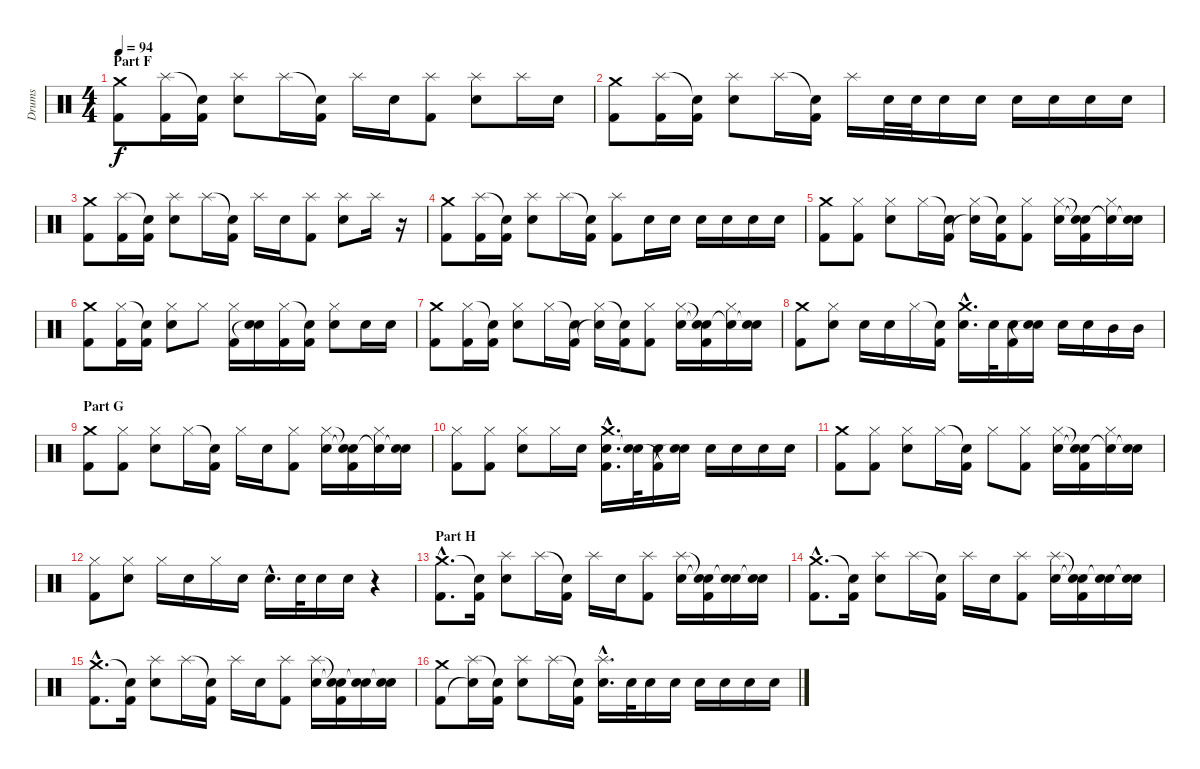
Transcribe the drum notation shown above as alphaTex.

\track ("Drums" "Drums") {instrument percussion}
\staff {score}
\articulation defaults
\ts (4 4)
\section ("" "Part F")
\tempo 94
\clef neutral
\ks c
("Crash medium (hit)" "Kick (hit) 2").8{dy f} ("Splash (hit)" "Kick (hit) 2").16 ("Snare (hit)"{t} "Kick (hit) 2").16 ("Splash (hit)" "Electric Snare (hit)").8 "Splash (hit)".16 ("Snare (hit)"{t} "Kick (hit) 2").16 "Splash (hit)".16 "Electric Snare (hit)".16 ("Splash (hit)" "Kick (hit) 2").8 ("Splash (hit)" "Electric Snare (hit)").8 "Splash (hit)".16 "Electric Snare (hit)".16 |
("Crash medium (hit)" "Kick (hit) 2").8 ("Splash (hit)" "Kick (hit) 2").16 ("Snare (hit)"{t} "Kick (hit) 2").16 ("Splash (hit)" "Electric Snare (hit)").8 "Splash (hit)".16 ("Snare (hit)"{t} "Kick (hit) 2").16 "Splash (hit)".16 "Electric Snare (hit)".32 "Electric Snare (hit)".32 "Electric Snare (hit)".16 "Electric Snare (hit)".16 "Electric Snare (hit)".16 "Electric Snare (hit)".16 "Electric Snare (hit)".16 "Electric Snare (hit)".16 |
("Crash medium (hit)" "Kick (hit) 2").8 ("Splash (hit)" "Kick (hit) 2").16 ("Snare (hit)"{t} "Kick (hit) 2").16 ("Splash (hit)" "Electric Snare (hit)").8 "Splash (hit)".16 ("Snare (hit)"{t} "Kick (hit) 2").16 "Splash (hit)".16 "Electric Snare (hit)".16 ("Splash (hit)" "Kick (hit) 2").8 ("Splash (hit)" "Electric Snare (hit)").8 "Splash (hit)".16 r.16 |
("Crash medium (hit)" "Kick (hit) 2").8 ("Splash (hit)" "Kick (hit) 2").16 ("Snare (hit)"{t} "Kick (hit) 2").16 ("Splash (hit)" "Electric Snare (hit)").8 "Splash (hit)".16 ("Snare (hit)"{t} "Kick (hit) 2").16 ("Splash (hit)" "Kick (hit) 2").8 "Electric Snare (hit)".16 "Electric Snare (hit)".16 "Electric Snare (hit)".16 "Electric Snare (hit)".16 "Electric Snare (hit)".16 "Electric Snare (hit)".16 |
("Crash medium (hit)" "Kick (hit) 2").8 ("Hi-Hat (closed)" "Kick (hit) 2").8 ("Hi-Hat (closed)" "Electric Snare (hit)").8 "Hi-Hat (closed)".16 ("Snare (hit)"{t} "Kick (hit) 2").16 ("Hi-Hat (closed)" "Snare (hit)"{t}).16 ("Snare (hit)"{t} "Kick (hit) 2").16 ("Hi-Hat (closed)" "Kick (hit) 2").8 ("Hi-Hat (closed)" "Electric Snare (hit)").16 ("Snare (hit)"{t} "Snare (hit)"{t} "Kick (hit) 2").16 ("Hi-Hat (closed)" "Snare (hit)"{t}).16 ("Electric Snare (hit)" "Snare (hit)"{t}).16 |
("Crash medium (hit)" "Kick (hit) 2").8 ("Hi-Hat (closed)" "Kick (hit) 2").16 ("Snare (hit)"{t} "Kick (hit) 2").16 ("Hi-Hat (closed)" "Electric Snare (hit)").8 "Hi-Hat (closed)".8 ("Hi-Hat (closed)" "Kick (hit) 2").16 ("Electric Snare (hit)" "Snare (hit)"{t}).16 ("Hi-Hat (closed)" "Kick (hit) 2").16 ("Snare (hit)"{t} "Kick (hit) 2").16 ("Hi-Hat (closed)" "Electric Snare (hit)").8 "Electric Snare (hit)".16 "Electric Snare (hit)".16 |
("Crash medium (hit)" "Kick (hit) 2").8 ("Hi-Hat (closed)" "Kick (hit) 2").16 ("Snare (hit)"{t} "Kick (hit) 2").16 ("Hi-Hat (closed)" "Electric Snare (hit)").8 "Hi-Hat (closed)".16 ("Snare (hit)"{t} "Kick (hit) 2").16 ("Hi-Hat (closed)" "Snare (hit)"{t}).16 ("Snare (hit)"{t} "Kick (hit) 2").16 ("Hi-Hat (closed)" "Kick (hit) 2").8 ("Hi-Hat (closed)" "Electric Snare (hit)").16 ("Snare (hit)"{t} "Snare (hit)"{t} "Kick (hit) 2").16 ("Hi-Hat (closed)" "Snare (hit)"{t}).16 ("Electric Snare (hit)" "Snare (hit)"{t}).16 |
("Crash medium (hit)" "Kick (hit) 2").8 ("Hi-Hat (closed)" "Electric Snare (hit)").8 "Electric Snare (hit)".16 "Electric Snare (hit)".16 "Hi-Hat (closed)".16 ("Snare (hit)"{t} "Kick (hit) 2").16 ("Crash medium (hit)"{hac} "Electric Snare (hit)"{hac}).16{d} "Electric Snare (hit)".32 ("Electric Snare (hit)" "Kick (hit) 2").16 ("Electric Snare (hit)" "Snare (hit)"{t}).16 "Electric Snare (hit)".16 "Electric Snare (hit)".16 "Mid Tom (hit)".16 "Mid Tom (hit)".16 |
\section ("" "Part G")
("Crash medium (hit)" "Kick (hit) 2").8 ("Hi-Hat (closed)" "Kick (hit) 2").8 ("Hi-Hat (closed)" "Electric Snare (hit)").8 "Hi-Hat (closed)".16 ("Snare (hit)"{t} "Kick (hit) 2").16 "Hi-Hat (closed)".16 "Electric Snare (hit)".16 ("Hi-Hat (closed)" "Kick (hit) 2").8 ("Hi-Hat (closed)" "Electric Snare (hit)").16 ("Snare (hit)"{t} "Snare (hit)"{t} "Kick (hit) 2").16 ("Hi-Hat (closed)" "Snare (hit)"{t}).16 ("Electric Snare (hit)" "Snare (hit)"{t}).16 |
("Hi-Hat (closed)" "Kick (hit) 2").8 ("Hi-Hat (closed)" "Kick (hit) 2").8 ("Hi-Hat (closed)" "Electric Snare (hit)").8 "Hi-Hat (closed)".16 "Electric Snare (hit)".16 ("Crash medium (hit)"{hac} "Electric Snare (hit)"{hac} "Kick (hit) 2"{hac}).16{d} ("Electric Snare (hit)" "Snare (hit)"{t}).32 ("Electric Snare (hit)" "Kick (hit) 2"{t}).16 ("Electric Snare (hit)" "Snare (hit)"{t}).16 "Electric Snare (hit)".16 "Electric Snare (hit)".16 "Electric Snare (hit)".16 "Electric Snare (hit)".16 |
("Crash medium (hit)" "Kick (hit) 2").8 ("Hi-Hat (closed)" "Kick (hit) 2").8 ("Hi-Hat (closed)" "Electric Snare (hit)").8 "Hi-Hat (closed)".16 ("Snare (hit)"{t} "Kick (hit) 2").16 "Hi-Hat (closed)".8 ("Hi-Hat (closed)" "Kick (hit) 2").8 ("Hi-Hat (closed)" "Electric Snare (hit)").16 ("Snare (hit)"{t} "Snare (hit)"{t} "Kick (hit) 2").16 ("Hi-Hat (closed)" "Snare (hit)"{t}).16 ("Electric Snare (hit)" "Snare (hit)"{t}).16 |
("Hi-Hat (closed)" "Kick (hit) 2").8 ("Hi-Hat (closed)" "Electric Snare (hit)").8 "Hi-Hat (closed)".16 "Electric Snare (hit)".16 "Hi-Hat (closed)".16 "Electric Snare (hit)".16 "Electric Snare (hit)"{hac}.16{d} "Electric Snare (hit)".32 "Electric Snare (hit)".16 "Electric Snare (hit)".16 r.4 |
\section ("" "Part H")
("Crash medium (hit)"{hac} "Kick (hit) 2"{hac}).8{d} ("Snare (hit)"{t} "Kick (hit) 2").16 ("Splash (hit)" "Electric Snare (hit)").8 "Splash (hit)".16 ("Snare (hit)"{t} "Kick (hit) 2").16 "Splash (hit)".16 "Electric Snare (hit)".16 ("Splash (hit)" "Kick (hit) 2").8 ("Splash (hit)" "Electric Snare (hit)").16 ("Snare (hit)"{t} "Snare (hit)"{t} "Kick (hit) 2").16 ("Electric Snare (hit)" "Snare (hit)"{t}).16 ("Electric Snare (hit)" "Snare (hit)"{t}).16 |
("Crash medium (hit)"{hac} "Kick (hit) 2"{hac}).8{d} ("Snare (hit)"{t} "Kick (hit) 2").16 ("Splash (hit)" "Electric Snare (hit)").8 "Splash (hit)".16 ("Snare (hit)"{t} "Kick (hit) 2").16 "Splash (hit)".16 "Electric Snare (hit)".16 ("Splash (hit)" "Kick (hit) 2").8 ("Splash (hit)" "Electric Snare (hit)").16 ("Snare (hit)"{t} "Snare (hit)"{t} "Kick (hit) 2").16 ("Electric Snare (hit)" "Snare (hit)"{t}).16 ("Electric Snare (hit)" "Snare (hit)"{t}).16 |
("Crash medium (hit)"{hac} "Kick (hit) 2"{hac}).8{d} ("Snare (hit)"{t} "Kick (hit) 2").16 ("Splash (hit)" "Electric Snare (hit)").8 "Splash (hit)".16 ("Snare (hit)"{t} "Kick (hit) 2").16 "Splash (hit)".16 "Electric Snare (hit)".16 ("Splash (hit)" "Kick (hit) 2").8 ("Splash (hit)" "Electric Snare (hit)").16 ("Snare (hit)"{t} "Snare (hit)"{t} "Kick (hit) 2").16 ("Electric Snare (hit)" "Snare (hit)"{t}).16 ("Electric Snare (hit)" "Snare (hit)"{t}).16 |
("Crash medium (hit)" "Kick (hit) 2").8 ("Splash (hit)" "Snare (hit)"{t}).16 ("Snare (hit)"{t} "Kick (hit) 2").16 ("Splash (hit)" "Electric Snare (hit)").8 "Splash (hit)".16 ("Snare (hit)"{t} "Kick (hit) 2").16 ("Splash (hit)"{hac} "Electric Snare (hit)"{hac}).16{d} "Electric Snare (hit)".32 "Electric Snare (hit)".16 "Electric Snare (hit)".16 "Electric Snare (hit)".16 "Electric Snare (hit)".16 "Electric Snare (hit)".16 "Electric Snare (hit)".16
